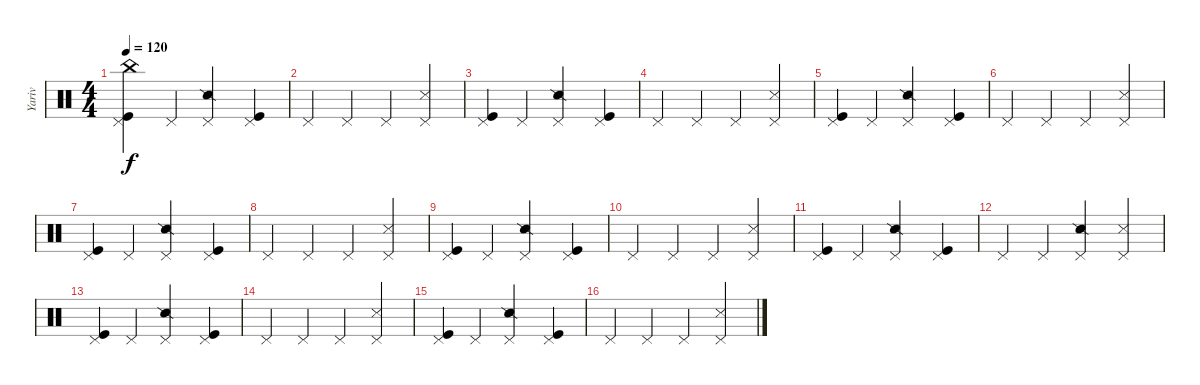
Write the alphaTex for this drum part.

\track ("Yariv" "Yariv") {instrument percussion}
\staff {score}
\articulation defaults
\ts (4 4)
\tempo 120
\tempo 170
\tempo 120
\clef neutral
\ks c
("Pedal Hi-Hat (hit)" "Kick (hit)" "China (hit)").4{dy f} "Pedal Hi-Hat (hit)".4 ("Pedal Hi-Hat (hit)" "Snare (side stick) 2").4 ("Pedal Hi-Hat (hit)" "Kick (hit)").4 |
"Pedal Hi-Hat (hit)".4 "Pedal Hi-Hat (hit)".4 "Pedal Hi-Hat (hit)".4 ("Pedal Hi-Hat (hit)" "Snare (side stick) 3").4 |
("Pedal Hi-Hat (hit)" "Kick (hit)").4 "Pedal Hi-Hat (hit)".4 ("Pedal Hi-Hat (hit)" "Snare (side stick) 2").4 ("Pedal Hi-Hat (hit)" "Kick (hit)").4 |
"Pedal Hi-Hat (hit)".4 "Pedal Hi-Hat (hit)".4 "Pedal Hi-Hat (hit)".4 ("Pedal Hi-Hat (hit)" "Snare (side stick) 3").4 |
("Pedal Hi-Hat (hit)" "Kick (hit)").4 "Pedal Hi-Hat (hit)".4 ("Pedal Hi-Hat (hit)" "Snare (side stick) 2").4 ("Pedal Hi-Hat (hit)" "Kick (hit)").4 |
"Pedal Hi-Hat (hit)".4 "Pedal Hi-Hat (hit)".4 "Pedal Hi-Hat (hit)".4 ("Pedal Hi-Hat (hit)" "Snare (side stick) 3").4 |
("Pedal Hi-Hat (hit)" "Kick (hit)").4 "Pedal Hi-Hat (hit)".4 ("Pedal Hi-Hat (hit)" "Snare (side stick) 2").4 ("Pedal Hi-Hat (hit)" "Kick (hit)").4 |
"Pedal Hi-Hat (hit)".4 "Pedal Hi-Hat (hit)".4 "Pedal Hi-Hat (hit)".4 ("Pedal Hi-Hat (hit)" "Snare (side stick) 3").4 |
("Pedal Hi-Hat (hit)" "Kick (hit)").4 "Pedal Hi-Hat (hit)".4 ("Pedal Hi-Hat (hit)" "Snare (side stick) 2").4 ("Pedal Hi-Hat (hit)" "Kick (hit)").4 |
"Pedal Hi-Hat (hit)".4 "Pedal Hi-Hat (hit)".4 "Pedal Hi-Hat (hit)".4 ("Pedal Hi-Hat (hit)" "Snare (side stick) 3").4 |
("Pedal Hi-Hat (hit)" "Kick (hit)").4 "Pedal Hi-Hat (hit)".4 ("Pedal Hi-Hat (hit)" "Snare (side stick) 2").4 ("Pedal Hi-Hat (hit)" "Kick (hit)").4 |
"Pedal Hi-Hat (hit)".4 "Pedal Hi-Hat (hit)".4 ("Pedal Hi-Hat (hit)" "Snare (side stick) 2").4 ("Pedal Hi-Hat (hit)" "Snare (side stick) 3").4 |
("Pedal Hi-Hat (hit)" "Kick (hit)").4 "Pedal Hi-Hat (hit)".4 ("Pedal Hi-Hat (hit)" "Snare (side stick) 2").4 ("Pedal Hi-Hat (hit)" "Kick (hit)").4 |
"Pedal Hi-Hat (hit)".4 "Pedal Hi-Hat (hit)".4 "Pedal Hi-Hat (hit)".4 ("Pedal Hi-Hat (hit)" "Snare (side stick) 3").4 |
("Pedal Hi-Hat (hit)" "Kick (hit)").4 "Pedal Hi-Hat (hit)".4 ("Pedal Hi-Hat (hit)" "Snare (side stick) 2").4 ("Pedal Hi-Hat (hit)" "Kick (hit)").4 |
"Pedal Hi-Hat (hit)".4 "Pedal Hi-Hat (hit)".4 "Pedal Hi-Hat (hit)".4 ("Pedal Hi-Hat (hit)" "Snare (side stick) 3").4
